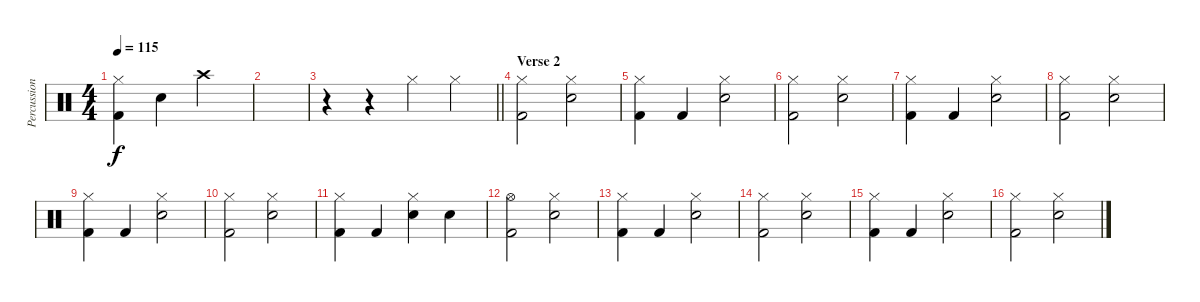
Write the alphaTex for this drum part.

\track ("Percussion" "Percussion") {instrument percussion}
\staff {score}
\articulation defaults
\ts (4 4)
\tempo 115
\clef neutral
\ks c
("Hi-Hat (closed)" "Kick (hit) 2").4{dy f} "Snare (hit) 2".4 "Crash high (hit)".2 |
|
\barLineRight lightlight
r.4 r.4 "Hi-Hat (closed)".4 "Hi-Hat (closed)".4 |
\section ("" "Verse 2")
("Hi-Hat (closed)" "Kick (hit) 2").2 ("Hi-Hat (closed)" "Snare (hit) 2").2 |
("Hi-Hat (closed)" "Kick (hit) 2").4 "Kick (hit) 2".4 ("Hi-Hat (closed)" "Snare (hit) 2").2 |
("Hi-Hat (closed)" "Kick (hit) 2").2 ("Hi-Hat (closed)" "Snare (hit) 2").2 |
("Hi-Hat (closed)" "Kick (hit) 2").4 "Kick (hit) 2".4 ("Hi-Hat (closed)" "Snare (hit) 2").2 |
("Hi-Hat (closed)" "Kick (hit) 2").2 ("Hi-Hat (closed)" "Snare (hit) 2").2 |
("Hi-Hat (closed)" "Kick (hit) 2").4 "Kick (hit) 2".4 ("Hi-Hat (closed)" "Snare (hit) 2").2 |
("Hi-Hat (closed)" "Kick (hit) 2").2 ("Hi-Hat (closed)" "Snare (hit) 2").2 |
("Hi-Hat (closed)" "Kick (hit) 2").4 "Kick (hit) 2".4 ("Hi-Hat (closed)" "Snare (hit) 2").4 "Snare (hit) 2".4 |
("Hi-Hat (open)" "Kick (hit) 2").2 ("Hi-Hat (closed)" "Snare (hit) 2").2 |
("Hi-Hat (closed)" "Kick (hit) 2").4 "Kick (hit) 2".4 ("Hi-Hat (closed)" "Snare (hit) 2").2 |
("Hi-Hat (closed)" "Kick (hit) 2").2 ("Hi-Hat (closed)" "Snare (hit) 2").2 |
("Hi-Hat (closed)" "Kick (hit) 2").4 "Kick (hit) 2".4 ("Hi-Hat (closed)" "Snare (hit) 2").2 |
("Hi-Hat (closed)" "Kick (hit) 2").2 ("Hi-Hat (closed)" "Snare (hit) 2").2
